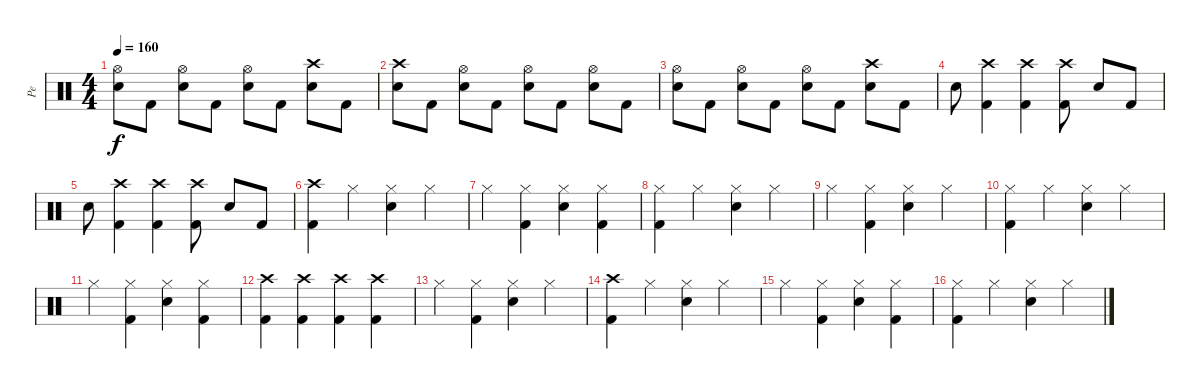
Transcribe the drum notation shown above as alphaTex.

\track ("Pe" "Pe") {instrument percussion}
\staff {score}
\articulation defaults
\ts (4 4)
\tempo 160
\clef neutral
\ks c
("Hi-Hat (open)" "Snare (hit) 2").8{dy f} "Kick (hit) 2".8 ("Hi-Hat (open)" "Snare (hit) 2").8 "Kick (hit) 2".8 ("Hi-Hat (open)" "Snare (hit) 2").8 "Kick (hit) 2".8 ("Crash high (hit)" "Snare (hit) 2").8 "Kick (hit) 2".8 |
("Crash high (hit)" "Snare (hit) 2").8 "Kick (hit) 2".8 ("Hi-Hat (open)" "Snare (hit) 2").8 "Kick (hit) 2".8 ("Hi-Hat (open)" "Snare (hit) 2").8 "Kick (hit) 2".8 ("Hi-Hat (open)" "Snare (hit) 2").8 "Kick (hit) 2".8 |
("Hi-Hat (open)" "Snare (hit) 2").8 "Kick (hit) 2".8 ("Hi-Hat (open)" "Snare (hit) 2").8 "Kick (hit) 2".8 ("Hi-Hat (open)" "Snare (hit) 2").8 "Kick (hit) 2".8 ("Crash high (hit)" "Snare (hit) 2").8 "Kick (hit) 2".8 |
"Snare (hit) 2".8 ("Crash high (hit)" "Kick (hit) 2").4 ("Crash high (hit)" "Kick (hit) 2").4 ("Kick (hit) 2" "Crash high (hit)").8 "Snare (hit) 2".8 "Kick (hit) 2".8 |
"Snare (hit) 2".8 ("Crash high (hit)" "Kick (hit) 2").4 ("Crash high (hit)" "Kick (hit) 2").4 ("Kick (hit) 2" "Crash high (hit)").8 "Snare (hit) 2".8 "Kick (hit) 2".8 |
("Crash high (hit)" "Kick (hit) 2").4 "Hi-Hat (closed)".4 ("Hi-Hat (closed)" "Snare (hit) 2").4 "Hi-Hat (closed)".4 |
"Hi-Hat (closed)".4 ("Hi-Hat (closed)" "Kick (hit) 2").4 ("Hi-Hat (closed)" "Snare (hit) 2").4 ("Hi-Hat (closed)" "Kick (hit) 2").4 |
("Hi-Hat (closed)" "Kick (hit) 2").4 "Hi-Hat (closed)".4 ("Hi-Hat (closed)" "Snare (hit) 2").4 "Hi-Hat (closed)".4 |
"Hi-Hat (closed)".4 ("Hi-Hat (closed)" "Kick (hit) 2").4 ("Hi-Hat (closed)" "Snare (hit) 2").4 "Hi-Hat (closed)".4 |
("Hi-Hat (closed)" "Kick (hit) 2").4 "Hi-Hat (closed)".4 ("Hi-Hat (closed)" "Snare (hit) 2").4 "Hi-Hat (closed)".4 |
"Hi-Hat (closed)".4 ("Hi-Hat (closed)" "Kick (hit) 2").4 ("Hi-Hat (closed)" "Snare (hit) 2").4 ("Hi-Hat (closed)" "Kick (hit) 2").4 |
("Crash high (hit)" "Kick (hit) 2").4 ("Crash high (hit)" "Kick (hit) 2").4 ("Crash high (hit)" "Kick (hit) 2").4 ("Crash high (hit)" "Kick (hit) 2").4 |
"Hi-Hat (closed)".4 ("Hi-Hat (closed)" "Kick (hit) 2").4 ("Hi-Hat (closed)" "Snare (hit) 2").4 "Hi-Hat (closed)".4 |
("Crash high (hit)" "Kick (hit) 2").4 "Hi-Hat (closed)".4 ("Hi-Hat (closed)" "Snare (hit) 2").4 "Hi-Hat (closed)".4 |
"Hi-Hat (closed)".4 ("Hi-Hat (closed)" "Kick (hit) 2").4 ("Hi-Hat (closed)" "Snare (hit) 2").4 ("Hi-Hat (closed)" "Kick (hit) 2").4 |
("Hi-Hat (closed)" "Kick (hit) 2").4 "Hi-Hat (closed)".4 ("Hi-Hat (closed)" "Snare (hit) 2").4 "Hi-Hat (closed)".4
